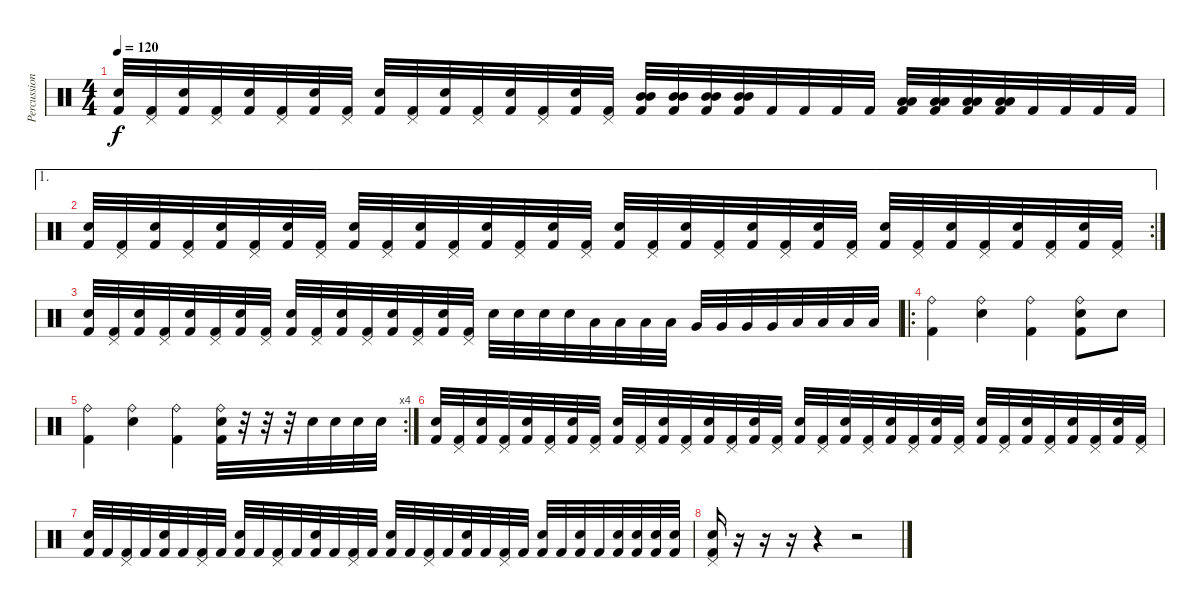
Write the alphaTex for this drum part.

\track ("Percussion" "Percussion") {instrument percussion}
\staff {score}
\articulation defaults
\ts (4 4)
\tempo 120
\clef neutral
\ks c
("Snare (hit) 2" "Kick (hit) 2").32{dy f} ("Pedal Hi-Hat (hit)" "Kick (hit) 2").32 ("Snare (hit) 2" "Kick (hit) 2").32 ("Pedal Hi-Hat (hit)" "Kick (hit) 2").32 ("Snare (hit) 2" "Kick (hit) 2").32 ("Pedal Hi-Hat (hit)" "Kick (hit) 2").32 ("Snare (hit) 2" "Kick (hit) 2").32 ("Pedal Hi-Hat (hit)" "Kick (hit) 2").32 ("Snare (hit) 2" "Kick (hit) 2").32 ("Pedal Hi-Hat (hit)" "Kick (hit) 2").32 ("Snare (hit) 2" "Kick (hit) 2").32 ("Pedal Hi-Hat (hit)" "Kick (hit) 2").32 ("Snare (hit) 2" "Kick (hit) 2").32 ("Pedal Hi-Hat (hit)" "Kick (hit) 2").32 ("Snare (hit) 2" "Kick (hit) 2").32 ("Pedal Hi-Hat (hit)" "Kick (hit) 2").32 ("Mid Tom (hit)" "Mid Tom (hit)" "Kick (hit) 2").32 ("Mid Tom (hit)" "Mid Tom (hit)" "Kick (hit) 2").32 ("Mid Tom (hit)" "Mid Tom (hit)" "Kick (hit) 2").32 ("Mid Tom (hit)" "Mid Tom (hit)" "Kick (hit) 2").32 "Kick (hit) 2".32 "Kick (hit) 2".32 "Kick (hit) 2".32 "Kick (hit) 2".32 ("Low Tom (hit)" "Low Tom (hit)" "Kick (hit) 2").32 ("Low Tom (hit)" "Low Tom (hit)" "Kick (hit) 2").32 ("Low Tom (hit)" "Low Tom (hit)" "Kick (hit) 2").32 ("Low Tom (hit)" "Low Tom (hit)" "Kick (hit) 2").32 "Kick (hit) 2".32 "Kick (hit) 2".32 "Kick (hit) 2".32 "Kick (hit) 2".32 |
\ae 1
\rc 2
("Snare (hit) 2" "Kick (hit) 2").32 ("Pedal Hi-Hat (hit)" "Kick (hit) 2").32 ("Snare (hit) 2" "Kick (hit) 2").32 ("Pedal Hi-Hat (hit)" "Kick (hit) 2").32 ("Snare (hit) 2" "Kick (hit) 2").32 ("Pedal Hi-Hat (hit)" "Kick (hit) 2").32 ("Snare (hit) 2" "Kick (hit) 2").32 ("Pedal Hi-Hat (hit)" "Kick (hit) 2").32 ("Snare (hit) 2" "Kick (hit) 2").32 ("Pedal Hi-Hat (hit)" "Kick (hit) 2").32 ("Snare (hit) 2" "Kick (hit) 2").32 ("Pedal Hi-Hat (hit)" "Kick (hit) 2").32 ("Snare (hit) 2" "Kick (hit) 2").32 ("Pedal Hi-Hat (hit)" "Kick (hit) 2").32 ("Snare (hit) 2" "Kick (hit) 2").32 ("Pedal Hi-Hat (hit)" "Kick (hit) 2").32 ("Snare (hit) 2" "Kick (hit) 2").32 ("Pedal Hi-Hat (hit)" "Kick (hit) 2").32 ("Snare (hit) 2" "Kick (hit) 2").32 ("Pedal Hi-Hat (hit)" "Kick (hit) 2").32 ("Snare (hit) 2" "Kick (hit) 2").32 ("Pedal Hi-Hat (hit)" "Kick (hit) 2").32 ("Snare (hit) 2" "Kick (hit) 2").32 ("Pedal Hi-Hat (hit)" "Kick (hit) 2").32 ("Snare (hit) 2" "Kick (hit) 2").32 ("Pedal Hi-Hat (hit)" "Kick (hit) 2").32 ("Snare (hit) 2" "Kick (hit) 2").32 ("Pedal Hi-Hat (hit)" "Kick (hit) 2").32 ("Snare (hit) 2" "Kick (hit) 2").32 ("Pedal Hi-Hat (hit)" "Kick (hit) 2").32 ("Snare (hit) 2" "Kick (hit) 2").32 ("Pedal Hi-Hat (hit)" "Kick (hit) 2").32 |
("Snare (hit) 2" "Kick (hit) 2").32 ("Pedal Hi-Hat (hit)" "Kick (hit) 2").32 ("Snare (hit) 2" "Kick (hit) 2").32 ("Pedal Hi-Hat (hit)" "Kick (hit) 2").32 ("Snare (hit) 2" "Kick (hit) 2").32 ("Pedal Hi-Hat (hit)" "Kick (hit) 2").32 ("Snare (hit) 2" "Kick (hit) 2").32 ("Pedal Hi-Hat (hit)" "Kick (hit) 2").32 ("Snare (hit) 2" "Kick (hit) 2").32 ("Pedal Hi-Hat (hit)" "Kick (hit) 2").32 ("Snare (hit) 2" "Kick (hit) 2").32 ("Pedal Hi-Hat (hit)" "Kick (hit) 2").32 ("Snare (hit) 2" "Kick (hit) 2").32 ("Pedal Hi-Hat (hit)" "Kick (hit) 2").32 ("Snare (hit) 2" "Kick (hit) 2").32 ("Pedal Hi-Hat (hit)" "Kick (hit) 2").32 "Snare (hit) 2".32 "Snare (hit) 2".32 "Snare (hit) 2".32 "Snare (hit) 2".32 "Low Tom (hit)".32 "Low Tom (hit)".32 "Low Tom (hit)".32 "Low Tom (hit)".32 "Very Low Tom (hit)".32 "Very Low Tom (hit)".32 "Very Low Tom (hit)".32 "Very Low Tom (hit)".32 "Low Floor Tom (hit)".32 "Low Floor Tom (hit)".32 "Low Floor Tom (hit)".32 "Low Floor Tom (hit)".32 |
\ro
("Ride (bell)" "Kick (hit) 2").4 ("Ride (bell)" "Snare (hit) 2").4 ("Ride (bell)" "Kick (hit) 2").4 ("Ride (bell)" "Snare (hit) 2" "Kick (hit) 2").8 "Snare (hit) 2".8 |
\rc 4
("Ride (bell)" "Kick (hit) 2").4 ("Ride (bell)" "Snare (hit) 2").4 ("Ride (bell)" "Kick (hit) 2").4 ("Ride (bell)" "Snare (hit) 2" "Kick (hit) 2").32 r.32 r.32 r.32 "Snare (hit) 2".32 "Snare (hit) 2".32 "Snare (hit) 2".32 "Snare (hit) 2".32 |
("Snare (hit) 2" "Kick (hit) 2").32 ("Pedal Hi-Hat (hit)" "Kick (hit) 2").32 ("Snare (hit) 2" "Kick (hit) 2").32 ("Pedal Hi-Hat (hit)" "Kick (hit) 2").32 ("Snare (hit) 2" "Kick (hit) 2").32 ("Pedal Hi-Hat (hit)" "Kick (hit) 2").32 ("Snare (hit) 2" "Kick (hit) 2").32 ("Pedal Hi-Hat (hit)" "Kick (hit) 2").32 ("Snare (hit) 2" "Kick (hit) 2").32 ("Pedal Hi-Hat (hit)" "Kick (hit) 2").32 ("Snare (hit) 2" "Kick (hit) 2").32 ("Pedal Hi-Hat (hit)" "Kick (hit) 2").32 ("Snare (hit) 2" "Kick (hit) 2").32 ("Pedal Hi-Hat (hit)" "Kick (hit) 2").32 ("Snare (hit) 2" "Kick (hit) 2").32 ("Pedal Hi-Hat (hit)" "Kick (hit) 2").32 ("Snare (hit) 2" "Kick (hit) 2").32 ("Pedal Hi-Hat (hit)" "Kick (hit) 2").32 ("Snare (hit) 2" "Kick (hit) 2").32 ("Pedal Hi-Hat (hit)" "Kick (hit) 2").32 ("Snare (hit) 2" "Kick (hit) 2").32 ("Pedal Hi-Hat (hit)" "Kick (hit) 2").32 ("Snare (hit) 2" "Kick (hit) 2").32 ("Pedal Hi-Hat (hit)" "Kick (hit) 2").32 ("Snare (hit) 2" "Kick (hit) 2").32 ("Pedal Hi-Hat (hit)" "Kick (hit) 2").32 ("Snare (hit) 2" "Kick (hit) 2").32 ("Pedal Hi-Hat (hit)" "Kick (hit) 2").32 ("Snare (hit) 2" "Kick (hit) 2").32 ("Pedal Hi-Hat (hit)" "Kick (hit) 2").32 ("Snare (hit) 2" "Kick (hit) 2").32 ("Pedal Hi-Hat (hit)" "Kick (hit) 2").32 |
("Snare (hit) 2" "Kick (hit) 2").32 "Kick (hit) 2".32 ("Pedal Hi-Hat (hit)" "Kick (hit) 2").32 "Kick (hit) 2".32 ("Snare (hit) 2" "Kick (hit) 2").32 "Kick (hit) 2".32 ("Pedal Hi-Hat (hit)" "Kick (hit) 2").32 "Kick (hit) 2".32 ("Snare (hit) 2" "Kick (hit) 2").32 "Kick (hit) 2".32 ("Pedal Hi-Hat (hit)" "Kick (hit) 2").32 "Kick (hit) 2".32 ("Snare (hit) 2" "Kick (hit) 2").32 "Kick (hit) 2".32 ("Pedal Hi-Hat (hit)" "Kick (hit) 2").32 "Kick (hit) 2".32 ("Snare (hit) 2" "Kick (hit) 2").32 "Kick (hit) 2".32 ("Pedal Hi-Hat (hit)" "Kick (hit) 2").32 "Kick (hit) 2".32 ("Snare (hit) 2" "Kick (hit) 2").32 "Kick (hit) 2".32 ("Pedal Hi-Hat (hit)" "Kick (hit) 2").32 "Kick (hit) 2".32 ("Snare (hit) 2" "Kick (hit) 2").32 "Kick (hit) 2".32 ("Snare (hit) 2" "Kick (hit) 2").32 "Kick (hit) 2".32 ("Snare (hit) 2" "Kick (hit) 2").32 ("Snare (hit) 2" "Kick (hit) 2").32 ("Snare (hit) 2" "Kick (hit) 2").32 ("Snare (hit) 2" "Kick (hit) 2").32 |
("Pedal Hi-Hat (hit)" "Snare (hit) 2" "Kick (hit) 2").16 r.16 r.16 r.16 r.4 r.2
